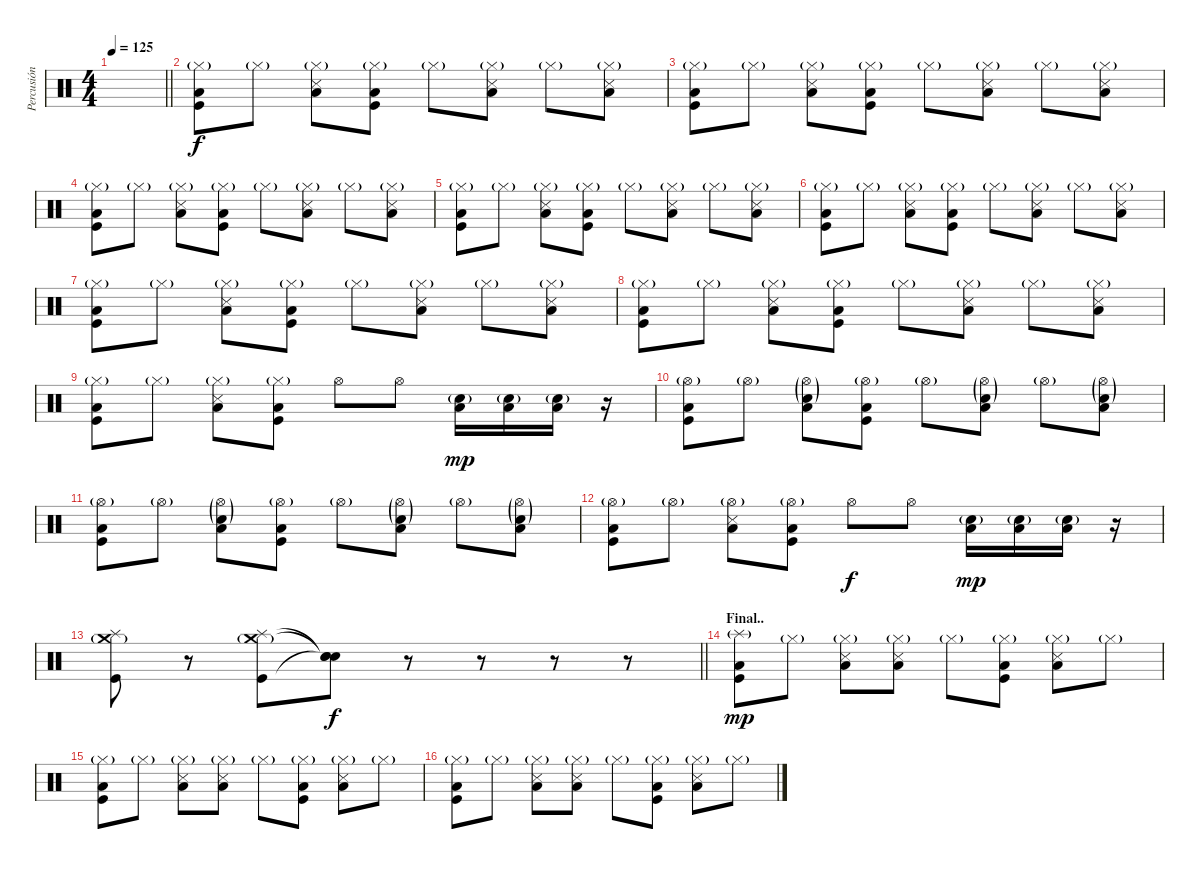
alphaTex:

\track ("Percusión" "Percusión") {instrument percussion}
\staff {score}
\articulation defaults
\ts (4 4)
\tempo 125
\clef neutral
\barLineRight lightlight
\ks c
|
("Hi-Hat (closed)"{g} "Low Floor Tom (hit)" "Kick (hit)").8 "Hi-Hat (closed)"{g}.8 ("Hi-Hat (closed)"{g} "Low Floor Tom (hit)" "Snare (side stick) 3").8 ("Hi-Hat (closed)"{g} "Low Floor Tom (hit)" "Kick (hit)").8 "Hi-Hat (closed)"{g}.8 ("Hi-Hat (closed)"{g} "Low Floor Tom (hit)" "Snare (side stick) 3").8 "Hi-Hat (closed)"{g}.8 ("Hi-Hat (closed)"{g} "Low Floor Tom (hit)" "Snare (side stick) 3").8 |
("Hi-Hat (closed)"{g} "Low Floor Tom (hit)" "Kick (hit)").8 "Hi-Hat (closed)"{g}.8 ("Hi-Hat (closed)"{g} "Low Floor Tom (hit)" "Snare (side stick) 3").8 ("Hi-Hat (closed)"{g} "Low Floor Tom (hit)" "Kick (hit)").8 "Hi-Hat (closed)"{g}.8 ("Hi-Hat (closed)"{g} "Low Floor Tom (hit)" "Snare (side stick) 3").8 "Hi-Hat (closed)"{g}.8 ("Hi-Hat (closed)"{g} "Low Floor Tom (hit)" "Snare (side stick) 3").8 |
("Hi-Hat (closed)"{g} "Low Floor Tom (hit)" "Kick (hit)").8 "Hi-Hat (closed)"{g}.8 ("Hi-Hat (closed)"{g} "Low Floor Tom (hit)" "Snare (side stick) 3").8 ("Hi-Hat (closed)"{g} "Low Floor Tom (hit)" "Kick (hit)").8 "Hi-Hat (closed)"{g}.8 ("Hi-Hat (closed)"{g} "Low Floor Tom (hit)" "Snare (side stick) 3").8 "Hi-Hat (closed)"{g}.8 ("Hi-Hat (closed)"{g} "Low Floor Tom (hit)" "Snare (side stick) 3").8 |
("Hi-Hat (closed)"{g} "Low Floor Tom (hit)" "Kick (hit)").8 "Hi-Hat (closed)"{g}.8 ("Hi-Hat (closed)"{g} "Low Floor Tom (hit)" "Snare (side stick) 3").8 ("Hi-Hat (closed)"{g} "Low Floor Tom (hit)" "Kick (hit)").8 "Hi-Hat (closed)"{g}.8 ("Hi-Hat (closed)"{g} "Low Floor Tom (hit)" "Snare (side stick) 3").8 "Hi-Hat (closed)"{g}.8 ("Hi-Hat (closed)"{g} "Low Floor Tom (hit)" "Snare (side stick) 3").8 |
("Hi-Hat (closed)"{g} "Low Floor Tom (hit)" "Kick (hit)").8 "Hi-Hat (closed)"{g}.8 ("Hi-Hat (closed)"{g} "Low Floor Tom (hit)" "Snare (side stick) 3").8 ("Hi-Hat (closed)"{g} "Low Floor Tom (hit)" "Kick (hit)").8 "Hi-Hat (closed)"{g}.8 ("Hi-Hat (closed)"{g} "Low Floor Tom (hit)" "Snare (side stick) 3").8 "Hi-Hat (closed)"{g}.8 ("Hi-Hat (closed)"{g} "Low Floor Tom (hit)" "Snare (side stick) 3").8 |
("Hi-Hat (closed)"{g} "Low Floor Tom (hit)" "Kick (hit)").8 "Hi-Hat (closed)"{g}.8 ("Hi-Hat (closed)"{g} "Low Floor Tom (hit)" "Snare (side stick) 3").8 ("Hi-Hat (closed)"{g} "Low Floor Tom (hit)" "Kick (hit)").8 "Hi-Hat (closed)"{g}.8 ("Hi-Hat (closed)"{g} "Low Floor Tom (hit)" "Snare (side stick) 3").8 "Hi-Hat (closed)"{g}.8 ("Hi-Hat (closed)"{g} "Low Floor Tom (hit)" "Snare (side stick) 3").8 |
("Hi-Hat (closed)"{g} "Low Floor Tom (hit)" "Kick (hit)").8 "Hi-Hat (closed)"{g}.8 ("Hi-Hat (closed)"{g} "Low Floor Tom (hit)" "Snare (side stick) 3").8 ("Hi-Hat (closed)"{g} "Low Floor Tom (hit)" "Kick (hit)").8 "Hi-Hat (closed)"{g}.8 ("Hi-Hat (closed)"{g} "Low Floor Tom (hit)" "Snare (side stick) 3").8 "Hi-Hat (closed)"{g}.8 ("Hi-Hat (closed)"{g} "Low Floor Tom (hit)" "Snare (side stick) 3").8 |
("Hi-Hat (closed)"{g} "Low Floor Tom (hit)" "Kick (hit)").8 "Hi-Hat (closed)"{g}.8 ("Hi-Hat (closed)"{g} "Low Floor Tom (hit)" "Snare (side stick) 3").8 ("Hi-Hat (closed)"{g} "Low Floor Tom (hit)" "Kick (hit)").8 "Hi-Hat (open)".8{dy f} "Hi-Hat (open)".8 ("Low Floor Tom (hit)" "Electric Snare (hit)"{g}).16{dy mp} ("Low Floor Tom (hit)" "Electric Snare (hit)"{g}).16 ("Low Floor Tom (hit)" "Electric Snare (hit)"{g}).16 r.16 |
("Hi-Hat (open)"{g} "Low Floor Tom (hit)" "Kick (hit)").8 "Hi-Hat (open)"{g}.8 ("Hi-Hat (open)"{g} "Low Floor Tom (hit)" "Electric Snare (hit)"{g}).8 ("Hi-Hat (open)"{g} "Low Floor Tom (hit)" "Kick (hit)").8 "Hi-Hat (open)"{g}.8 ("Hi-Hat (open)"{g} "Low Floor Tom (hit)" "Electric Snare (hit)"{g}).8 "Hi-Hat (open)"{g}.8 ("Hi-Hat (open)"{g} "Low Floor Tom (hit)" "Electric Snare (hit)"{g}).8 |
("Hi-Hat (open)"{g} "Low Floor Tom (hit)" "Kick (hit)").8 "Hi-Hat (open)"{g}.8 ("Hi-Hat (open)"{g} "Low Floor Tom (hit)" "Electric Snare (hit)"{g}).8 ("Hi-Hat (open)"{g} "Low Floor Tom (hit)" "Kick (hit)").8 "Hi-Hat (open)"{g}.8 ("Hi-Hat (open)"{g} "Low Floor Tom (hit)" "Electric Snare (hit)"{g}).8 "Hi-Hat (open)"{g}.8 ("Hi-Hat (open)"{g} "Low Floor Tom (hit)" "Electric Snare (hit)"{g}).8 |
("Hi-Hat (open)"{g} "Low Floor Tom (hit)" "Kick (hit)").8 "Hi-Hat (open)"{g}.8 ("Hi-Hat (open)"{g} "Low Floor Tom (hit)" "Snare (side stick) 3").8 ("Hi-Hat (open)"{g} "Low Floor Tom (hit)" "Kick (hit)").8 "Hi-Hat (open)".8{dy f} "Hi-Hat (open)".8 ("Low Floor Tom (hit)" "Electric Snare (hit)"{g}).16{dy mp} ("Low Floor Tom (hit)" "Electric Snare (hit)"{g}).16 ("Low Floor Tom (hit)" "Electric Snare (hit)"{g}).16 r.16 |
\barLineRight lightlight
("Crash medium (hit)"{g} "Splash (hit)" "Kick (hit)").8 r.8 ("Crash medium (hit)"{g} "Splash (hit)" "Kick (hit)").8 ("Snare (hit)"{t} "Snare (hit)"{t} "Snare (hit)"{t}).8{dy f} r.8 r.8 r.8 r.8 |
\section ("" "Final..")
("Splash (hit)"{g} "Low Floor Tom (hit)" "Kick (hit)").8{dy mp} "Hi-Hat (closed)"{g}.8 ("Hi-Hat (closed)"{g} "Low Floor Tom (hit)" "Snare (side stick) 3").8 ("Hi-Hat (closed)"{g} "Low Floor Tom (hit)" "Snare (side stick) 3").8 "Hi-Hat (closed)"{g}.8 ("Hi-Hat (closed)"{g} "Low Floor Tom (hit)" "Kick (hit)").8 ("Hi-Hat (closed)"{g} "Low Floor Tom (hit)" "Snare (side stick) 3").8 "Hi-Hat (closed)"{g}.8 |
("Hi-Hat (closed)"{g} "Low Floor Tom (hit)" "Kick (hit)").8 "Hi-Hat (closed)"{g}.8 ("Hi-Hat (closed)"{g} "Low Floor Tom (hit)" "Snare (side stick) 3").8 ("Hi-Hat (closed)"{g} "Low Floor Tom (hit)" "Snare (side stick) 3").8 "Hi-Hat (closed)"{g}.8 ("Hi-Hat (closed)"{g} "Low Floor Tom (hit)" "Kick (hit)").8 ("Hi-Hat (closed)"{g} "Low Floor Tom (hit)" "Snare (side stick) 3").8 "Hi-Hat (closed)"{g}.8 |
("Hi-Hat (closed)"{g} "Low Floor Tom (hit)" "Kick (hit)").8 "Hi-Hat (closed)"{g}.8 ("Hi-Hat (closed)"{g} "Low Floor Tom (hit)" "Snare (side stick) 3").8 ("Hi-Hat (closed)"{g} "Low Floor Tom (hit)" "Snare (side stick) 3").8 "Hi-Hat (closed)"{g}.8 ("Hi-Hat (closed)"{g} "Low Floor Tom (hit)" "Kick (hit)").8 ("Hi-Hat (closed)"{g} "Low Floor Tom (hit)" "Snare (side stick) 3").8 "Hi-Hat (closed)"{g}.8
